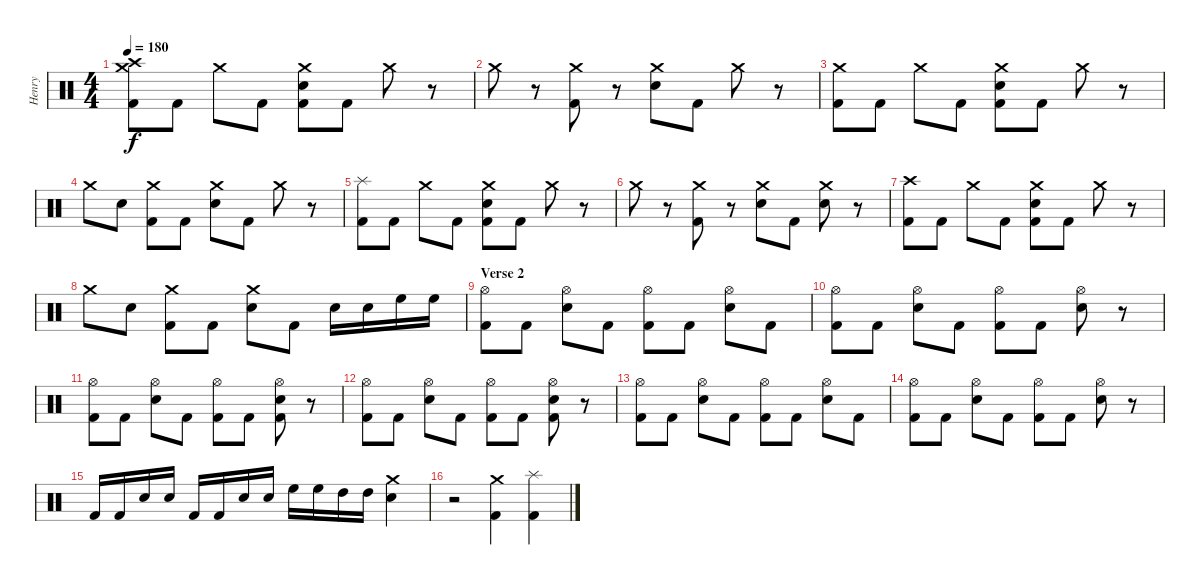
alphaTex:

\track ("Henry" "Henry") {instrument percussion}
\staff {score}
\articulation defaults
\ts (4 4)
\tempo 180
\clef neutral
\ks c
("Crash high (hit)" "Crash medium (hit)" "Kick (hit) 2").8{dy f} "Kick (hit) 2".8 "Crash medium (hit)".8 "Kick (hit) 2".8 ("Crash medium (hit)" "Snare (hit) 2" "Kick (hit) 2").8 "Kick (hit) 2".8 "Crash medium (hit)".8 r.8 |
"Crash medium (hit)".8 r.8 ("Crash medium (hit)" "Kick (hit) 2").8 r.8 ("Crash medium (hit)" "Snare (hit) 2").8 "Kick (hit) 2".8 "Crash medium (hit)".8 r.8 |
("Crash medium (hit)" "Kick (hit) 2").8 "Kick (hit) 2".8 "Crash medium (hit)".8 "Kick (hit) 2".8 ("Crash medium (hit)" "Snare (hit) 2" "Kick (hit) 2").8 "Kick (hit) 2".8 "Crash medium (hit)".8 r.8 |
"Crash medium (hit)".8 "Snare (hit) 2".8 ("Crash medium (hit)" "Kick (hit) 2").8 "Kick (hit) 2".8 ("Crash medium (hit)" "Snare (hit) 2").8 "Kick (hit) 2".8 "Crash medium (hit)".8 r.8 |
("Splash (hit)" "Kick (hit) 2").8 "Kick (hit) 2".8 "Crash medium (hit)".8 "Kick (hit) 2".8 ("Crash medium (hit)" "Snare (hit) 2" "Kick (hit) 2").8 "Kick (hit) 2".8 "Crash medium (hit)".8 r.8 |
"Crash medium (hit)".8 r.8 ("Crash medium (hit)" "Kick (hit) 2").8 r.8 ("Crash medium (hit)" "Snare (hit) 2").8 "Kick (hit) 2".8 ("Crash medium (hit)" "Snare (hit) 2").8 r.8 |
("Crash high (hit)" "Kick (hit) 2").8 "Kick (hit) 2".8 "Crash medium (hit)".8 "Kick (hit) 2".8 ("Crash medium (hit)" "Snare (hit) 2" "Kick (hit) 2").8 "Kick (hit) 2".8 "Crash medium (hit)".8 r.8 |
"Crash medium (hit)".8 "Snare (hit) 2".8 ("Crash medium (hit)" "Kick (hit) 2").8 "Kick (hit) 2".8 ("Crash medium (hit)" "Snare (hit) 2").8 "Kick (hit) 2".8 "Snare (hit) 2".16 "Snare (hit) 2".16 "High Floor Tom (hit)".16 "High Floor Tom (hit)".16 |
\section ("" "Verse 2")
("Hi-Hat (open)" "Kick (hit) 2").8 "Kick (hit) 2".8 ("Hi-Hat (open)" "Snare (hit) 2").8 "Kick (hit) 2".8 ("Hi-Hat (open)" "Kick (hit) 2").8 "Kick (hit) 2".8 ("Hi-Hat (open)" "Snare (hit) 2").8 "Kick (hit) 2".8 |
("Hi-Hat (open)" "Kick (hit) 2").8 "Kick (hit) 2".8 ("Hi-Hat (open)" "Snare (hit) 2").8 "Kick (hit) 2".8 ("Hi-Hat (open)" "Kick (hit) 2").8 "Kick (hit) 2".8 ("Hi-Hat (open)" "Snare (hit) 2").8 r.8 |
("Hi-Hat (open)" "Kick (hit) 2").8 "Kick (hit) 2".8 ("Hi-Hat (open)" "Snare (hit) 2").8 "Kick (hit) 2".8 ("Hi-Hat (open)" "Kick (hit) 2").8 "Kick (hit) 2".8 ("Hi-Hat (open)" "Snare (hit) 2" "Kick (hit) 2").8 r.8 |
("Hi-Hat (open)" "Kick (hit) 2").8 "Kick (hit) 2".8 ("Hi-Hat (open)" "Snare (hit) 2").8 "Kick (hit) 2".8 ("Hi-Hat (open)" "Kick (hit) 2").8 "Kick (hit) 2".8 ("Hi-Hat (open)" "Snare (hit) 2" "Kick (hit) 2").8 r.8 |
("Hi-Hat (open)" "Kick (hit) 2").8 "Kick (hit) 2".8 ("Hi-Hat (open)" "Snare (hit) 2").8 "Kick (hit) 2".8 ("Hi-Hat (open)" "Kick (hit) 2").8 "Kick (hit) 2".8 ("Hi-Hat (open)" "Snare (hit) 2").8 "Kick (hit) 2".8 |
("Hi-Hat (open)" "Kick (hit) 2").8 "Kick (hit) 2".8 ("Hi-Hat (open)" "Snare (hit) 2").8 "Kick (hit) 2".8 ("Hi-Hat (open)" "Kick (hit) 2").8 "Kick (hit) 2".8 ("Hi-Hat (open)" "Snare (hit) 2").8 r.8 |
"Kick (hit) 2".16 "Kick (hit) 2".16 "Snare (hit) 2".16 "Snare (hit) 2".16 "Kick (hit) 2".16 "Kick (hit) 2".16 "Snare (hit) 2".16 "Snare (hit) 2".16 "High Floor Tom (hit)".16 "High Floor Tom (hit)".16 "High Tom (hit)".16 "High Tom (hit)".16 ("Crash medium (hit)" "Snare (hit) 2").4 |
r.2 ("Crash medium (hit)" "Kick (hit) 2").4 ("Splash (hit)" "Kick (hit) 2").4
